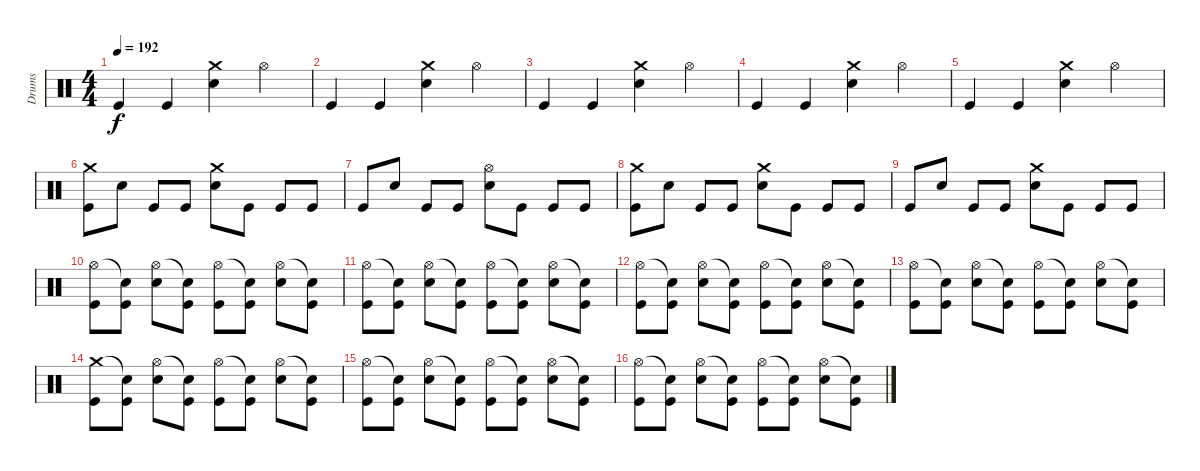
\track ("Drums" "Drums") {instrument percussion}
\staff {score}
\articulation defaults
\ts (4 4)
\tempo 192
\clef neutral
\ks c "Kick (hit)".4{dy f} "Kick (hit)".4
("Snare (hit) 2" "Crash medium (hit)").4 "Hi-Hat (open)".4 |
"Kick (hit)".4 "Kick (hit)".4 ("Snare (hit) 2" "Crash medium (hit)").4 "Hi-Hat (open)".4 |
"Kick (hit)".4 "Kick (hit)".4 ("Snare (hit) 2" "Crash medium (hit)").4 "Hi-Hat (open)".4 |
"Kick (hit)".4 "Kick (hit)".4 ("Snare (hit) 2" "Crash medium (hit)").4 "Hi-Hat (open)".4 |
"Kick (hit)".4 "Kick (hit)".4 ("Snare (hit) 2" "Crash medium (hit)").4 "Hi-Hat (open)".4 |
("Kick (hit)" "Crash medium (hit)").8 "Snare (hit) 2".8 "Kick (hit)".8 "Kick (hit)".8 ("Snare (hit) 2" "Crash medium (hit)").8 "Kick (hit)".8 "Kick (hit)".8 "Kick (hit)".8 |
"Kick (hit)".8 "Snare (hit) 2".8 "Kick (hit)".8 "Kick (hit)".8 ("Snare (hit) 2" "Hi-Hat (open)").8 "Kick (hit)".8 "Kick (hit)".8 "Kick (hit)".8 |
("Kick (hit)" "Crash medium (hit)").8 "Snare (hit) 2".8 "Kick (hit)".8 "Kick (hit)".8 ("Snare (hit) 2" "Crash medium (hit)").8 "Kick (hit)".8 "Kick (hit)".8 "Kick (hit)".8 |
"Kick (hit)".8 "Snare (hit) 2".8 "Kick (hit)".8 "Kick (hit)".8 ("Snare (hit) 2" "Crash medium (hit)").8 "Kick (hit)".8 "Kick (hit)".8 "Kick (hit)".8 |
("Kick (hit)" "Hi-Hat (open)").8 ("Kick (hit)" "Snare (hit)"{t}).8 ("Snare (hit) 2" "Hi-Hat (open)").8 ("Kick (hit)" "Snare (hit)"{t}).8 ("Kick (hit)" "Hi-Hat (open)").8 ("Kick (hit)" "Snare (hit)"{t}).8 ("Snare (hit) 2" "Hi-Hat (open)").8 ("Kick (hit)" "Snare (hit)"{t}).8 |
("Kick (hit)" "Hi-Hat (open)").8 ("Kick (hit)" "Snare (hit)"{t}).8 ("Snare (hit) 2" "Hi-Hat (open)").8 ("Kick (hit)" "Snare (hit)"{t}).8 ("Kick (hit)" "Hi-Hat (open)").8 ("Kick (hit)" "Snare (hit)"{t}).8 ("Snare (hit) 2" "Hi-Hat (open)").8 ("Kick (hit)" "Snare (hit)"{t}).8 |
("Kick (hit)" "Hi-Hat (open)").8 ("Kick (hit)" "Snare (hit)"{t}).8 ("Snare (hit) 2" "Hi-Hat (open)").8 ("Kick (hit)" "Snare (hit)"{t}).8 ("Kick (hit)" "Hi-Hat (open)").8 ("Kick (hit)" "Snare (hit)"{t}).8 ("Snare (hit) 2" "Hi-Hat (open)").8 ("Kick (hit)" "Snare (hit)"{t}).8 |
("Kick (hit)" "Hi-Hat (open)").8 ("Kick (hit)" "Snare (hit)"{t}).8 ("Snare (hit) 2" "Hi-Hat (open)").8 ("Kick (hit)" "Snare (hit)"{t}).8 ("Kick (hit)" "Hi-Hat (open)").8 ("Kick (hit)" "Snare (hit)"{t}).8 ("Snare (hit) 2" "Hi-Hat (open)").8 ("Kick (hit)" "Snare (hit)"{t}).8 |
("Kick (hit)" "Crash medium (hit)").8 ("Kick (hit)" "Snare (hit)"{t}).8 ("Snare (hit) 2" "Hi-Hat (open)").8 ("Kick (hit)" "Snare (hit)"{t}).8 ("Kick (hit)" "Hi-Hat (open)").8 ("Kick (hit)" "Snare (hit)"{t}).8 ("Snare (hit) 2" "Hi-Hat (open)").8 ("Kick (hit)" "Snare (hit)"{t}).8 |
("Kick (hit)" "Hi-Hat (open)").8 ("Kick (hit)" "Snare (hit)"{t}).8 ("Snare (hit) 2" "Hi-Hat (open)").8 ("Kick (hit)" "Snare (hit)"{t}).8 ("Kick (hit)" "Hi-Hat (open)").8 ("Kick (hit)" "Snare (hit)"{t}).8 ("Snare (hit) 2" "Hi-Hat (open)").8 ("Kick (hit)" "Snare (hit)"{t}).8 |
("Kick (hit)" "Hi-Hat (open)").8 ("Kick (hit)" "Snare (hit)"{t}).8 ("Snare (hit) 2" "Hi-Hat (open)").8 ("Kick (hit)" "Snare (hit)"{t}).8 ("Kick (hit)" "Hi-Hat (open)").8 ("Kick (hit)" "Snare (hit)"{t}).8 ("Snare (hit) 2" "Hi-Hat (open)").8 ("Kick (hit)" "Snare (hit)"{t}).8
